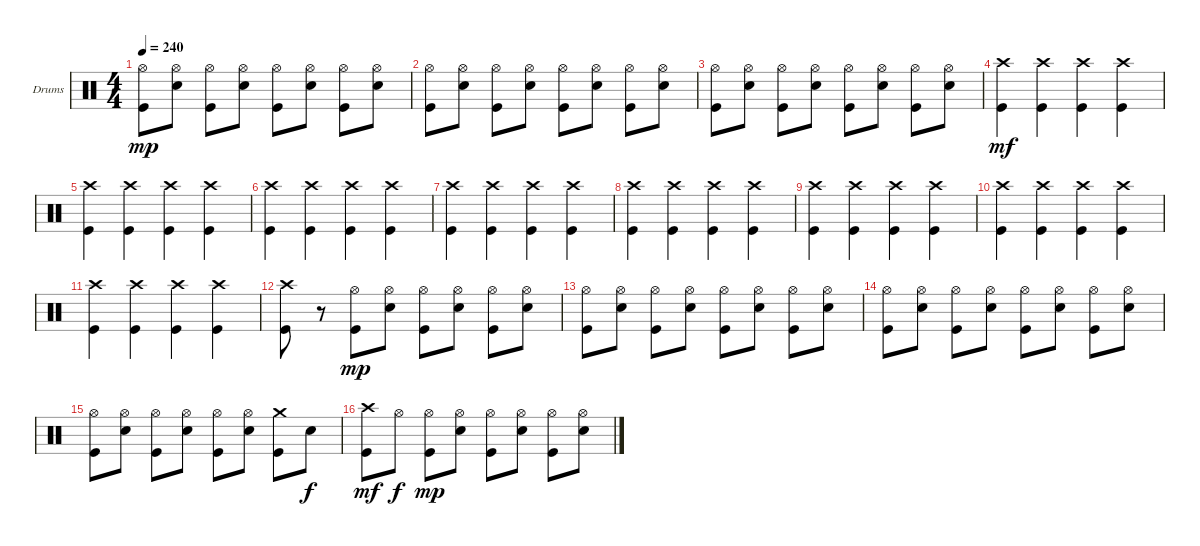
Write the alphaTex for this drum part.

\bracketExtendMode groupsimilarinstruments
\firstSystemTrackNameOrientation horizontal
\otherSystemsTrackNameOrientation horizontal
\track ("Drumkit" "Drums") {instrument percussion}
\staff {score}
\articulation defaults
\ts (4 4)
\tempo 240
\clef neutral
\ks c
("Hi-Hat (open)" "Kick (hit)").8{dy mp} ("Hi-Hat (open)" "Snare (hit) 2").8 ("Hi-Hat (open)" "Kick (hit)").8 ("Hi-Hat (open)" "Snare (hit) 2").8 ("Hi-Hat (open)" "Kick (hit)").8 ("Hi-Hat (open)" "Snare (hit) 2").8 ("Hi-Hat (open)" "Kick (hit)").8 ("Hi-Hat (open)" "Snare (hit) 2").8 |
("Hi-Hat (open)" "Kick (hit)").8 ("Hi-Hat (open)" "Snare (hit) 2").8 ("Hi-Hat (open)" "Kick (hit)").8 ("Hi-Hat (open)" "Snare (hit) 2").8 ("Hi-Hat (open)" "Kick (hit)").8 ("Hi-Hat (open)" "Snare (hit) 2").8 ("Hi-Hat (open)" "Kick (hit)").8 ("Hi-Hat (open)" "Snare (hit) 2").8 |
("Hi-Hat (open)" "Kick (hit)").8 ("Hi-Hat (open)" "Snare (hit) 2").8 ("Hi-Hat (open)" "Kick (hit)").8 ("Hi-Hat (open)" "Snare (hit) 2").8 ("Hi-Hat (open)" "Kick (hit)").8 ("Hi-Hat (open)" "Snare (hit) 2").8 ("Hi-Hat (open)" "Kick (hit)").8 ("Hi-Hat (open)" "Snare (hit) 2").8 |
("Crash high (hit)" "Kick (hit)").4{dy mf} ("Crash high (hit)" "Kick (hit)").4 ("Crash high (hit)" "Kick (hit)").4 ("Crash high (hit)" "Kick (hit)").4 |
("Crash high (hit)" "Kick (hit)").4 ("Crash high (hit)" "Kick (hit)").4 ("Crash high (hit)" "Kick (hit)").4 ("Crash high (hit)" "Kick (hit)").4 |
("Crash high (hit)" "Kick (hit)").4 ("Crash high (hit)" "Kick (hit)").4 ("Crash high (hit)" "Kick (hit)").4 ("Crash high (hit)" "Kick (hit)").4 |
("Crash high (hit)" "Kick (hit)").4 ("Crash high (hit)" "Kick (hit)").4 ("Crash high (hit)" "Kick (hit)").4 ("Crash high (hit)" "Kick (hit)").4 |
("Crash high (hit)" "Kick (hit)").4 ("Crash high (hit)" "Kick (hit)").4 ("Crash high (hit)" "Kick (hit)").4 ("Crash high (hit)" "Kick (hit)").4 |
("Crash high (hit)" "Kick (hit)").4 ("Crash high (hit)" "Kick (hit)").4 ("Crash high (hit)" "Kick (hit)").4 ("Crash high (hit)" "Kick (hit)").4 |
("Crash high (hit)" "Kick (hit)").4 ("Crash high (hit)" "Kick (hit)").4 ("Crash high (hit)" "Kick (hit)").4 ("Crash high (hit)" "Kick (hit)").4 |
("Crash high (hit)" "Kick (hit)").4 ("Crash high (hit)" "Kick (hit)").4 ("Crash high (hit)" "Kick (hit)").4 ("Crash high (hit)" "Kick (hit)").4 |
("Crash high (hit)" "Kick (hit)").8 r.8 ("Hi-Hat (open)" "Kick (hit)").8{dy mp} ("Hi-Hat (open)" "Snare (hit) 2").8 ("Hi-Hat (open)" "Kick (hit)").8 ("Hi-Hat (open)" "Snare (hit) 2").8 ("Hi-Hat (open)" "Kick (hit)").8 ("Hi-Hat (open)" "Snare (hit) 2").8 |
("Hi-Hat (open)" "Kick (hit)").8 ("Hi-Hat (open)" "Snare (hit) 2").8 ("Hi-Hat (open)" "Kick (hit)").8 ("Hi-Hat (open)" "Snare (hit) 2").8 ("Hi-Hat (open)" "Kick (hit)").8 ("Hi-Hat (open)" "Snare (hit) 2").8 ("Hi-Hat (open)" "Kick (hit)").8 ("Hi-Hat (open)" "Snare (hit) 2").8 |
("Hi-Hat (open)" "Kick (hit)").8 ("Hi-Hat (open)" "Snare (hit) 2").8 ("Hi-Hat (open)" "Kick (hit)").8 ("Hi-Hat (open)" "Snare (hit) 2").8 ("Hi-Hat (open)" "Kick (hit)").8 ("Hi-Hat (open)" "Snare (hit) 2").8 ("Hi-Hat (open)" "Kick (hit)").8 ("Hi-Hat (open)" "Snare (hit) 2").8 |
("Hi-Hat (open)" "Kick (hit)").8 ("Hi-Hat (open)" "Snare (hit) 2").8 ("Hi-Hat (open)" "Kick (hit)").8 ("Hi-Hat (open)" "Snare (hit) 2").8 ("Hi-Hat (open)" "Kick (hit)").8 ("Hi-Hat (open)" "Snare (hit) 2").8 ("Crash medium (hit)" "Kick (hit)").8 "Snare (hit) 2".8{dy f} |
("Crash high (hit)" "Kick (hit)").8{dy mf} "Hi-Hat (open)".8{dy f} ("Hi-Hat (open)" "Kick (hit)").8{dy mp} ("Hi-Hat (open)" "Snare (hit) 2").8 ("Hi-Hat (open)" "Kick (hit)").8 ("Hi-Hat (open)" "Snare (hit) 2").8 ("Hi-Hat (open)" "Kick (hit)").8 ("Hi-Hat (open)" "Snare (hit) 2").8
